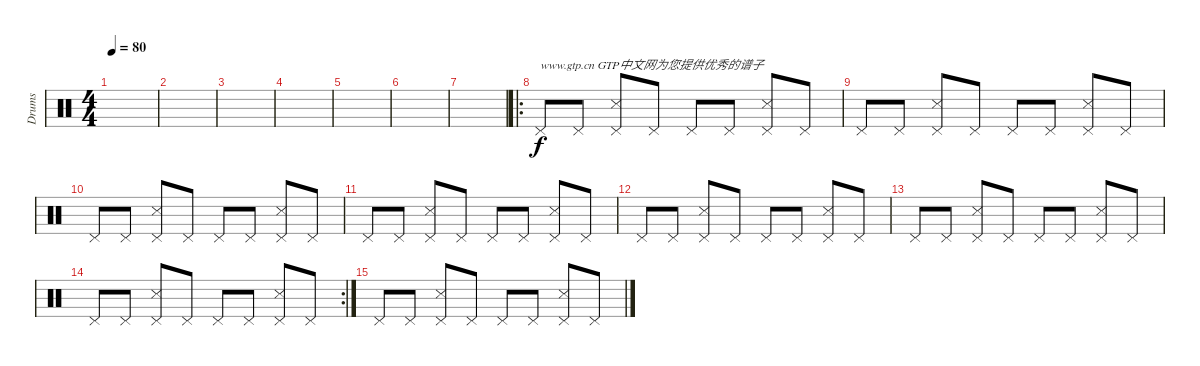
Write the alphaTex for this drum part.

\track ("Drums" "Drums") {instrument percussion}
\staff {score}
\articulation defaults
\ts (4 4)
\tempo 80
\clef neutral
\ks c
|
|
|
|
|
|
|
\ro "Pedal Hi-Hat (hit)".8{txt "www.gtp.cn GTP中文网为您提供优秀的谱子"} "Pedal Hi-Hat (hit)".8
("Pedal Hi-Hat (hit)" "Snare (side stick) 3").8 "Pedal Hi-Hat (hit)".8 "Pedal Hi-Hat (hit)".8 "Pedal Hi-Hat (hit)".8 ("Pedal Hi-Hat (hit)" "Snare (side stick) 3").8 "Pedal Hi-Hat (hit)".8 |
"Pedal Hi-Hat (hit)".8 "Pedal Hi-Hat (hit)".8 ("Pedal Hi-Hat (hit)" "Snare (side stick) 3").8 "Pedal Hi-Hat (hit)".8 "Pedal Hi-Hat (hit)".8 "Pedal Hi-Hat (hit)".8 ("Pedal Hi-Hat (hit)" "Snare (side stick) 3").8 "Pedal Hi-Hat (hit)".8 |
"Pedal Hi-Hat (hit)".8 "Pedal Hi-Hat (hit)".8 ("Pedal Hi-Hat (hit)" "Snare (side stick) 3").8 "Pedal Hi-Hat (hit)".8 "Pedal Hi-Hat (hit)".8 "Pedal Hi-Hat (hit)".8 ("Pedal Hi-Hat (hit)" "Snare (side stick) 3").8 "Pedal Hi-Hat (hit)".8 |
"Pedal Hi-Hat (hit)".8 "Pedal Hi-Hat (hit)".8 ("Pedal Hi-Hat (hit)" "Snare (side stick) 3").8 "Pedal Hi-Hat (hit)".8 "Pedal Hi-Hat (hit)".8 "Pedal Hi-Hat (hit)".8 ("Pedal Hi-Hat (hit)" "Snare (side stick) 3").8 "Pedal Hi-Hat (hit)".8 |
"Pedal Hi-Hat (hit)".8 "Pedal Hi-Hat (hit)".8 ("Pedal Hi-Hat (hit)" "Snare (side stick) 3").8 "Pedal Hi-Hat (hit)".8 "Pedal Hi-Hat (hit)".8 "Pedal Hi-Hat (hit)".8 ("Pedal Hi-Hat (hit)" "Snare (side stick) 3").8 "Pedal Hi-Hat (hit)".8 |
"Pedal Hi-Hat (hit)".8 "Pedal Hi-Hat (hit)".8 ("Pedal Hi-Hat (hit)" "Snare (side stick) 3").8 "Pedal Hi-Hat (hit)".8 "Pedal Hi-Hat (hit)".8 "Pedal Hi-Hat (hit)".8 ("Pedal Hi-Hat (hit)" "Snare (side stick) 3").8 "Pedal Hi-Hat (hit)".8 |
\rc 2 "Pedal Hi-Hat (hit)".8 "Pedal Hi-Hat (hit)".8
("Pedal Hi-Hat (hit)" "Snare (side stick) 3").8 "Pedal Hi-Hat (hit)".8 "Pedal Hi-Hat (hit)".8 "Pedal Hi-Hat (hit)".8 ("Pedal Hi-Hat (hit)" "Snare (side stick) 3").8 "Pedal Hi-Hat (hit)".8 |
"Pedal Hi-Hat (hit)".8 "Pedal Hi-Hat (hit)".8 ("Pedal Hi-Hat (hit)" "Snare (side stick) 3").8 "Pedal Hi-Hat (hit)".8 "Pedal Hi-Hat (hit)".8 "Pedal Hi-Hat (hit)".8 ("Pedal Hi-Hat (hit)" "Snare (side stick) 3").8 "Pedal Hi-Hat (hit)".8
